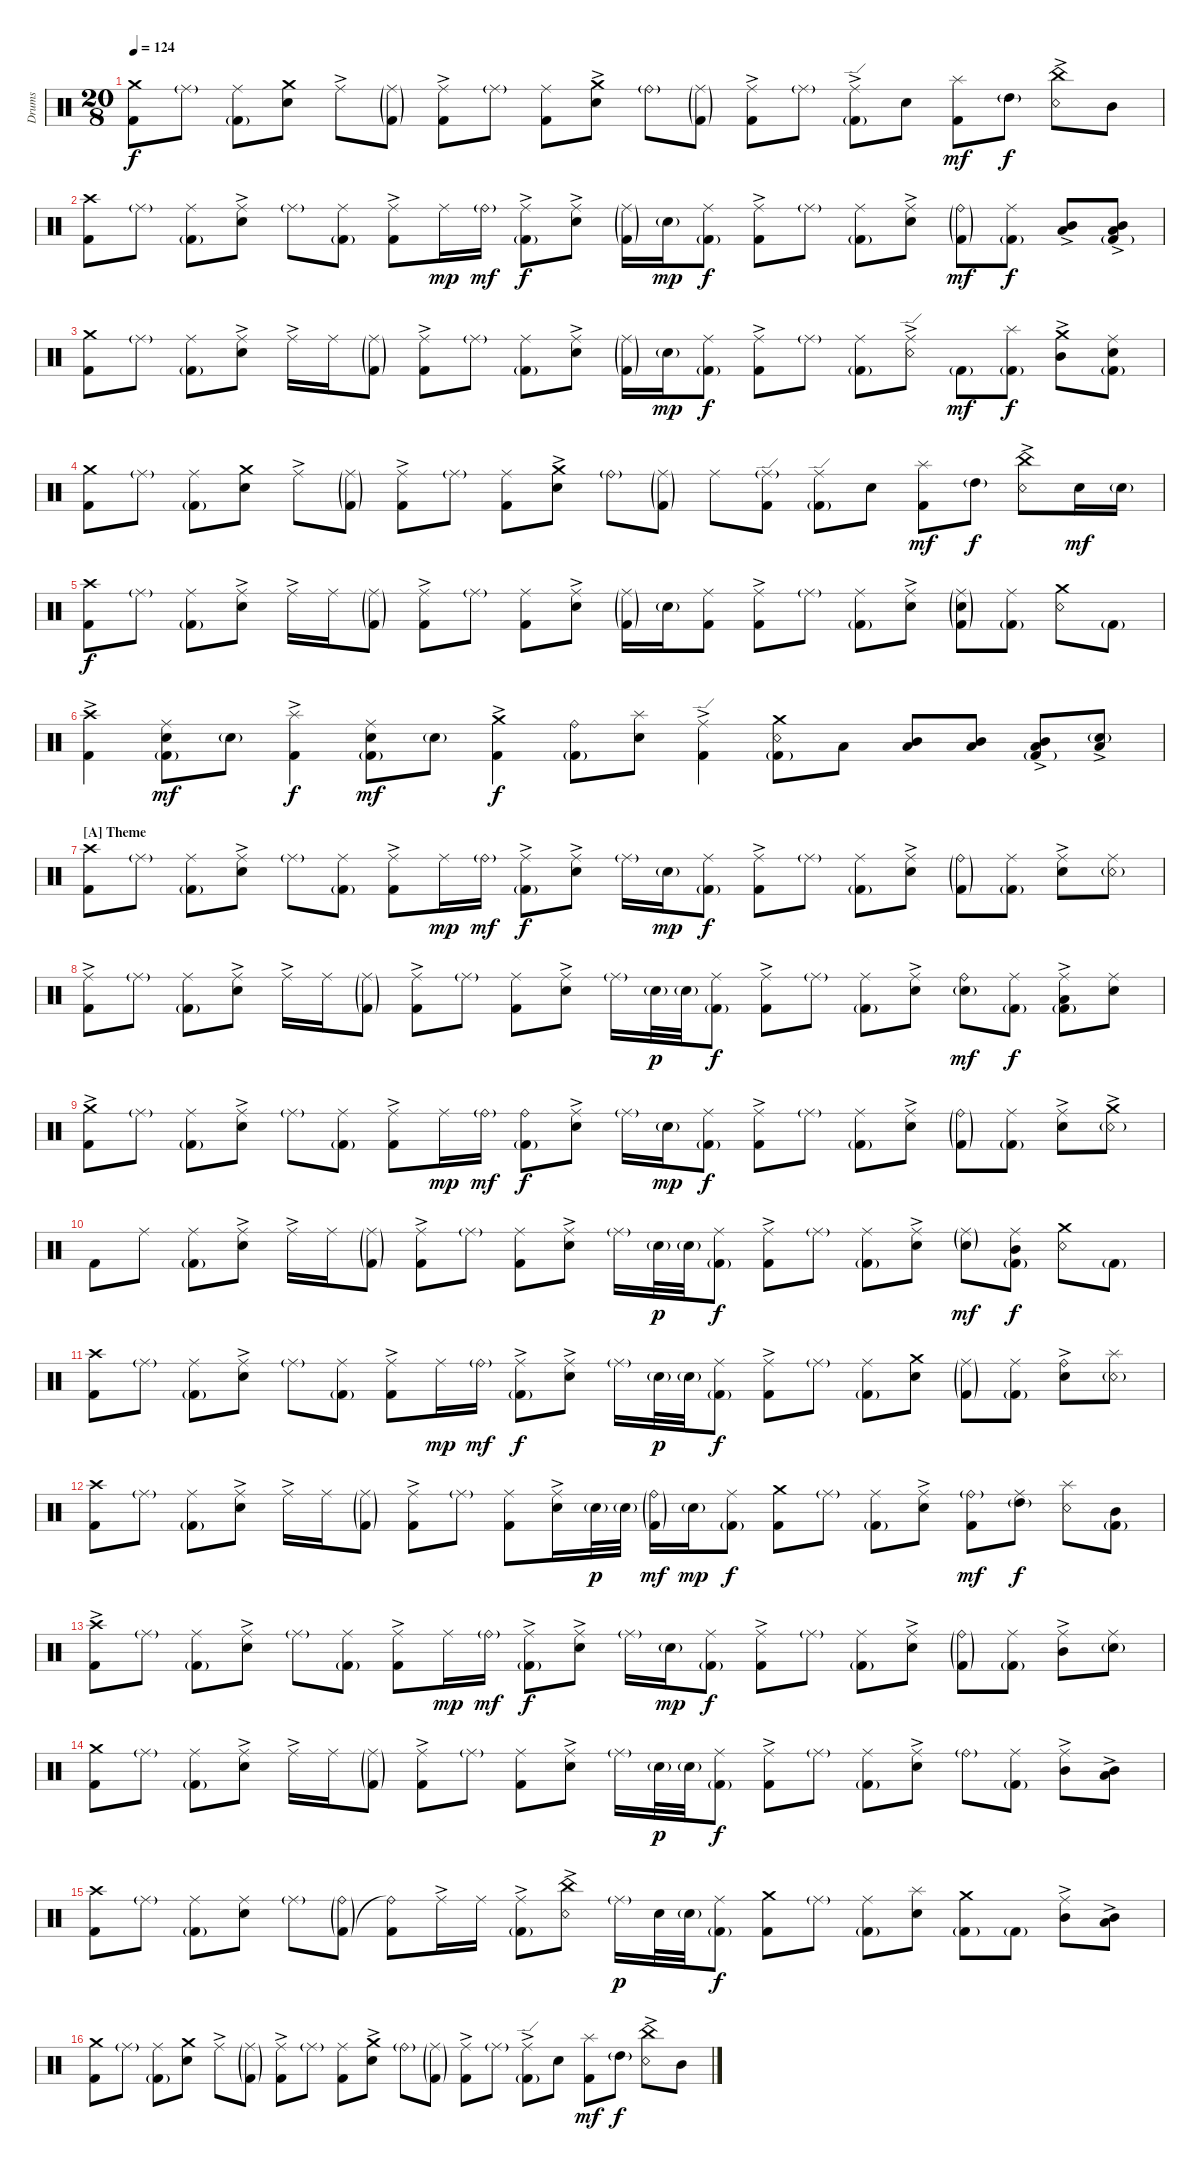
\bracketExtendMode groupsimilarinstruments
\otherSystemsTrackNameOrientation horizontal
\track ("Drumkit" "Drums") {instrument percussion}
\staff {score}
\articulation defaults
\ts (20 8)
\tempo 124
\clef neutral
\ks c
("Kick (hit) 2" "Crash medium (hit)").8{dy f beam Down} "Ride (middle)"{g}.8{beam Down} ("Ride (middle)" "Kick (hit) 2"{g}).8{beam Down} ("Snare (hit) 2" "Crash medium (hit)").8{beam Down} "Ride (middle)"{ac}.8{beam Down} ("Ride (middle)"{g} "Kick (hit) 2"{g}).8{beam Down} ("Ride (middle)"{ac} "Kick (hit) 2").8{beam Down} "Ride (middle)"{g}.8{beam Down} ("Ride (middle)" "Kick (hit) 2").8{beam Down} ("Snare (hit) 2" "Crash medium (hit)"{ac}).8{beam Down} "Ride (bell)"{g}.8{beam Down} ("Ride (middle)"{g} "Kick (hit) 2"{g}).8{beam Down} ("Ride (middle)"{ac} "Kick (hit) 2").8{beam Down} "Ride (middle)"{g}.8{beam Down} ("Ride (edge)"{ac} "Kick (hit) 2"{g}).8{beam Down} "Snare (hit) 2".8{beam Down} ("Kick (hit) 2" "Splash (hit)").8{dy mf beam Down} "High Tom (hit)"{g}.8{dy f beam Down} ("Snare (rim shot)" "China (hit)"{ac}).8{beam Down} "Mid Tom (hit)".8{beam Down} |
("Kick (hit) 2" "Crash high (hit)").8{beam Down} "Ride (middle)"{g}.8{beam Down} ("Ride (middle)" "Kick (hit) 2"{g}).8{beam Down} ("Ride (middle)"{ac} "Snare (hit) 2").8{beam Down} "Ride (middle)"{g}.8{beam Down} ("Ride (middle)" "Kick (hit) 2"{g}).8{beam Down} ("Ride (middle)"{ac} "Kick (hit) 2").8{beam Down} "Ride (middle)".16{dy mp beam Down} "Ride (bell)"{g}.16{dy mf beam Down} ("Ride (middle)"{ac} "Kick (hit) 2"{g}).8{dy f beam Down} ("Ride (middle)"{ac} "Snare (hit) 2").8{beam Down} ("Ride (middle)"{g} "Kick (hit) 2"{g}).16{beam Down} "Snare (hit) 2"{g}.16{dy mp beam Down} ("Ride (middle)" "Kick (hit) 2"{g}).8{dy f beam Down} ("Kick (hit) 2" "Ride (middle)"{ac}).8{beam Down} "Ride (middle)"{g}.8{beam Down} ("Ride (middle)" "Kick (hit) 2"{g}).8{beam Down} ("Ride (middle)"{ac} "Snare (hit) 2").8{beam Down} ("Ride (bell)"{g} "Kick (hit) 2"{g}).8{dy mf beam Down} ("Ride (middle)" "Kick (hit) 2"{g}).8{dy f beam Down} ("Mid Tom (hit)"{ac} "Low Tom (hit)"{ac}).8{beam Up} ("Mid Tom (hit)" "Low Tom (hit)"{ac} "Kick (hit) 2"{g}).8{beam Up} |
("Kick (hit) 2" "Crash medium (hit)").8{beam Down} "Ride (middle)"{g}.8{beam Down} ("Ride (middle)" "Kick (hit) 2"{g}).8{beam Down} ("Ride (middle)"{ac} "Snare (hit) 2").8{beam Down} "Ride (middle)"{ac}.16{beam Down} "Ride (middle)".16{beam Down} ("Ride (middle)"{g} "Kick (hit) 2"{g}).8{beam Down} ("Ride (middle)"{ac} "Kick (hit) 2").8{beam Down} "Ride (middle)"{g}.8{beam Down} ("Ride (middle)" "Kick (hit) 2"{g}).8{beam Down} ("Ride (middle)"{ac} "Snare (hit) 2").8{beam Down} ("Ride (middle)"{g} "Kick (hit) 2"{g}).16{beam Down} "Snare (hit) 2"{g}.16{dy mp beam Down} ("Ride (middle)" "Kick (hit) 2"{g}).8{dy f beam Down} ("Kick (hit) 2" "Ride (middle)"{ac}).8{beam Down} "Ride (middle)"{g}.8{beam Down} ("Ride (middle)" "Kick (hit) 2"{g}).8{beam Down} ("Ride (edge)"{ac} "Snare (rim shot)").8{beam Down} "Kick (hit) 2"{g}.8{dy mf beam Down} ("Kick (hit) 2"{g} "Splash (hit)").8{dy f beam Down} ("Mid Tom (hit)"{ac} "Crash medium (hit)").8{beam Down} ("Kick (hit) 2"{g} "Snare (hit) 2" "Ride (middle)").8{beam Down} |
("Kick (hit) 2" "Crash medium (hit)").8{beam Down} "Ride (middle)"{g}.8{beam Down} ("Ride (middle)" "Kick (hit) 2"{g}).8{beam Down} ("Snare (hit) 2" "Crash medium (hit)").8{beam Down} "Ride (middle)"{ac}.8{beam Down} ("Ride (middle)"{g} "Kick (hit) 2"{g}).8{beam Down} ("Ride (middle)"{ac} "Kick (hit) 2").8{beam Down} "Ride (middle)"{g}.8{beam Down} ("Ride (middle)" "Kick (hit) 2").8{beam Down} ("Snare (hit) 2" "Crash medium (hit)"{ac}).8{beam Down} "Ride (bell)"{g}.8{beam Down} ("Ride (middle)"{g} "Kick (hit) 2"{g}).8{beam Down} "Ride (middle)".8{beam Down} ("Ride (edge)"{g} "Kick (hit) 2").8{beam Down} ("Kick (hit) 2"{g} "Ride (edge)").8{beam Down} "Snare (hit) 2".8{beam Down} ("Kick (hit) 2" "Splash (hit)").8{dy mf beam Down} "High Tom (hit)"{g}.8{dy f beam Down} ("Snare (rim shot)" "China (hit)"{ac}).8{beam Down} "Snare (hit) 2".16{dy mf beam Down} "Snare (hit) 2"{g}.16{beam Down} |
("Kick (hit) 2" "Crash high (hit)").8{dy f beam Down} "Ride (middle)"{g}.8{beam Down} ("Ride (middle)" "Kick (hit) 2"{g}).8{beam Down} ("Ride (middle)"{ac} "Snare (hit) 2").8{beam Down} "Ride (middle)"{ac}.16{beam Down} "Ride (middle)".16{beam Down} ("Ride (middle)"{g} "Kick (hit) 2"{g}).8{beam Down} ("Ride (middle)"{ac} "Kick (hit) 2").8{beam Down} "Ride (middle)"{g}.8{beam Down} ("Ride (middle)" "Kick (hit) 2").8{beam Down} ("Ride (middle)"{ac} "Snare (hit) 2").8{beam Down} ("Ride (middle)"{g} "Kick (hit) 2"{g}).16{beam Down} "Snare (hit) 2"{g}.16{beam Down} ("Ride (middle)" "Kick (hit) 2").8{beam Down} ("Kick (hit) 2" "Ride (middle)"{ac}).8{beam Down} "Ride (middle)"{g}.8{beam Down} ("Ride (middle)" "Kick (hit) 2"{g}).8{beam Down} ("Ride (middle)"{ac} "Snare (hit) 2").8{beam Down} ("Ride (middle)"{g} "Snare (hit) 2"{g} "Kick (hit) 2"{g}).8{beam Down} ("Ride (middle)" "Kick (hit) 2"{g}).8{beam Down} ("Snare (rim shot)" "Crash medium (hit)").8{beam Down} "Kick (hit) 2"{g}.8{beam Down} |
("Kick (hit) 2" "Crash high (hit)"{ac}).4{beam Down} ("Kick (hit) 2"{g} "Ride (middle)" "Snare (hit) 2").8{dy mf beam Down} "Snare (hit) 2"{g}.8{beam Down} ("Kick (hit) 2" "Splash (hit)"{ac}).4{dy f beam Down} ("Kick (hit) 2"{g} "Ride (middle)" "Snare (hit) 2").8{dy mf beam Down} "Snare (hit) 2"{g}.8{beam Down} ("Kick (hit) 2" "Crash medium (hit)"{ac}).4{dy f beam Down} ("Kick (hit) 2"{g} "Ride (bell)").8{beam Down} ("Snare (hit) 2" "Splash (hit)").8{beam Down} ("Kick (hit) 2" "Ride (edge)"{ac}).4{beam Down} ("Snare (rim shot)" "Crash medium (hit)" "Kick (hit) 2"{g}).8{beam Down} "Low Tom (hit)".8{beam Up} ("Low Tom (hit)" "Mid Tom (hit)").8{beam Up} ("Low Tom (hit)" "Mid Tom (hit)").8{beam Up} ("Low Tom (hit)"{ac} "Mid Tom (hit)" "Kick (hit) 2"{g}).8{beam Up} ("Snare (hit) 2"{g} "Low Tom (hit)"{ac}).8{beam Up} |
\section ("A" "Theme")
("Kick (hit) 2" "Crash high (hit)").8{beam Down} "Ride (middle)"{g}.8{beam Down} ("Ride (middle)" "Kick (hit) 2"{g}).8{beam Down} ("Ride (middle)"{ac} "Snare (hit) 2").8{beam Down} "Ride (middle)"{g}.8{beam Down} ("Ride (middle)" "Kick (hit) 2"{g}).8{beam Down} ("Ride (middle)"{ac} "Kick (hit) 2").8{beam Down} "Ride (middle)".16{dy mp beam Down} "Ride (bell)"{g}.16{dy mf beam Down} ("Ride (middle)"{ac} "Kick (hit) 2"{g}).8{dy f beam Down} ("Ride (middle)"{ac} "Snare (hit) 2").8{beam Down} "Ride (middle)"{g}.16{beam Down} "Snare (hit) 2"{g}.16{dy mp beam Down} ("Ride (middle)" "Kick (hit) 2"{g}).8{dy f beam Down} ("Kick (hit) 2" "Ride (middle)"{ac}).8{beam Down} "Ride (middle)"{g}.8{beam Down} ("Ride (middle)" "Kick (hit) 2"{g}).8{beam Down} ("Ride (middle)"{ac} "Snare (hit) 2").8{beam Down} ("Ride (bell)"{g} "Kick (hit) 2"{g}).8{beam Down} ("Ride (middle)" "Kick (hit) 2"{g}).8{beam Down} ("Ride (middle)"{ac} "Snare (hit) 2").8{beam Down} ("Ride (middle)" "Snare (rim shot)"{g}).8{beam Down} |
("Kick (hit) 2" "Ride (middle)"{ac}).8{beam Down} "Ride (middle)"{g}.8{beam Down} ("Ride (middle)" "Kick (hit) 2"{g}).8{beam Down} ("Ride (middle)"{ac} "Snare (hit) 2").8{beam Down} "Ride (middle)"{ac}.16{beam Down} "Ride (middle)".16{beam Down} ("Ride (middle)"{g} "Kick (hit) 2"{g}).8{beam Down} ("Ride (middle)"{ac} "Kick (hit) 2").8{beam Down} "Ride (middle)"{g}.8{beam Down} ("Ride (middle)" "Kick (hit) 2").8{beam Down} ("Ride (middle)"{ac} "Snare (hit) 2").8{beam Down} "Ride (middle)"{g}.16{beam Down} "Snare (hit) 2"{g}.32{dy p beam Down} "Snare (hit) 2"{g}.32{beam Down} ("Ride (middle)" "Kick (hit) 2"{g}).8{dy f beam Down} ("Kick (hit) 2" "Ride (middle)"{ac}).8{beam Down} "Ride (middle)"{g}.8{beam Down} ("Ride (middle)" "Kick (hit) 2"{g}).8{beam Down} ("Ride (middle)"{ac} "Snare (hit) 2").8{beam Down} ("Ride (bell)" "Snare (hit) 2"{g}).8{dy mf beam Down} ("Ride (middle)" "Kick (hit) 2"{g}).8{dy f beam Down} ("Low Tom (hit)"{ac} "Kick (hit) 2"{g} "Ride (middle)").8{beam Down} ("Snare (hit) 2" "Ride (middle)").8{beam Down} |
("Kick (hit) 2" "Crash medium (hit)"{ac}).8{beam Down} "Ride (middle)"{g}.8{beam Down} ("Ride (middle)" "Kick (hit) 2"{g}).8{beam Down} ("Ride (middle)"{ac} "Snare (hit) 2").8{beam Down} "Ride (middle)"{g}.8{beam Down} ("Ride (middle)" "Kick (hit) 2"{g}).8{beam Down} ("Ride (middle)"{ac} "Kick (hit) 2").8{beam Down} "Ride (middle)".16{dy mp beam Down} "Ride (bell)"{g}.16{dy mf beam Down} ("Ride (bell)" "Kick (hit) 2"{g}).8{dy f beam Down} ("Ride (middle)"{ac} "Snare (hit) 2").8{beam Down} "Ride (middle)"{g}.16{beam Down} "Snare (hit) 2"{g}.16{dy mp beam Down} ("Ride (middle)" "Kick (hit) 2"{g}).8{dy f beam Down} ("Kick (hit) 2" "Ride (middle)"{ac}).8{beam Down} "Ride (middle)"{g}.8{beam Down} ("Ride (middle)" "Kick (hit) 2"{g}).8{beam Down} ("Ride (middle)"{ac} "Snare (hit) 2").8{beam Down} ("Ride (bell)"{g} "Kick (hit) 2"{g}).8{beam Down} ("Ride (middle)" "Kick (hit) 2"{g}).8{beam Down} ("Ride (middle)"{ac} "Snare (hit) 2").8{beam Down} ("Snare (rim shot)"{g} "Crash medium (hit)"{ac}).8{beam Down} |
"Kick (hit) 2".8{beam Down} "Ride (middle)".8{beam Down} ("Ride (middle)" "Kick (hit) 2"{g}).8{beam Down} ("Ride (middle)"{ac} "Snare (hit) 2").8{beam Down} "Ride (middle)"{ac}.16{beam Down} "Ride (middle)".16{beam Down} ("Ride (middle)"{g} "Kick (hit) 2"{g}).8{beam Down} ("Ride (middle)"{ac} "Kick (hit) 2").8{beam Down} "Ride (middle)"{g}.8{beam Down} ("Ride (middle)" "Kick (hit) 2").8{beam Down} ("Ride (middle)"{ac} "Snare (hit) 2").8{beam Down} "Ride (middle)"{g}.16{beam Down} "Snare (hit) 2"{g}.32{dy p beam Down} "Snare (hit) 2"{g}.32{beam Down} ("Ride (middle)" "Kick (hit) 2"{g}).8{dy f beam Down} ("Kick (hit) 2" "Ride (middle)"{ac}).8{beam Down} "Ride (middle)"{g}.8{beam Down} ("Ride (middle)" "Kick (hit) 2"{g}).8{beam Down} ("Ride (middle)"{ac} "Snare (hit) 2").8{beam Down} ("Ride (middle)"{g} "Snare (hit) 2"{g}).8{dy mf beam Down} ("Ride (middle)" "Kick (hit) 2"{g} "Mid Tom (hit)").8{dy f beam Down} ("Snare (rim shot)" "Crash medium (hit)").8{beam Down} "Kick (hit) 2"{g}.8{beam Down} |
("Kick (hit) 2" "Crash high (hit)").8{beam Down} "Ride (middle)"{g}.8{beam Down} ("Ride (middle)" "Kick (hit) 2"{g}).8{beam Down} ("Ride (middle)"{ac} "Snare (hit) 2").8{beam Down} "Ride (middle)"{g}.8{beam Down} ("Ride (middle)" "Kick (hit) 2"{g}).8{beam Down} ("Ride (middle)"{ac} "Kick (hit) 2").8{beam Down} "Ride (middle)".16{dy mp beam Down} "Ride (bell)"{g}.16{dy mf beam Down} ("Ride (middle)"{ac} "Kick (hit) 2"{g}).8{dy f beam Down} ("Ride (middle)"{ac} "Snare (hit) 2").8{beam Down} "Ride (middle)"{g}.16{beam Down} "Snare (hit) 2"{g}.32{dy p beam Down} "Snare (hit) 2"{g}.32{beam Down} ("Ride (middle)" "Kick (hit) 2"{g}).8{dy f beam Down} ("Kick (hit) 2" "Ride (middle)"{ac}).8{beam Down} "Ride (middle)"{g}.8{beam Down} ("Ride (middle)" "Kick (hit) 2"{g}).8{beam Down} ("Snare (hit) 2" "Crash medium (hit)").8{beam Down} ("Ride (middle)"{g} "Kick (hit) 2"{g}).8{beam Down} ("Ride (middle)" "Kick (hit) 2"{g}).8{beam Down} ("Ride (bell)"{ac} "Snare (hit) 2").8{beam Down} ("Snare (rim shot)"{g} "Splash (hit)").8{beam Down} |
("Kick (hit) 2" "Crash high (hit)").8{beam Down} "Ride (middle)"{g}.8{beam Down} ("Ride (middle)" "Kick (hit) 2"{g}).8{beam Down} ("Ride (middle)"{ac} "Snare (hit) 2").8{beam Down} "Ride (middle)"{ac}.16{beam Down} "Ride (middle)".16{beam Down} ("Ride (middle)"{g} "Kick (hit) 2"{g}).8{beam Down} ("Ride (middle)"{ac} "Kick (hit) 2").8{beam Down} "Ride (middle)"{g}.8{beam Down} ("Ride (middle)" "Kick (hit) 2").8{beam Down} ("Ride (middle)"{ac} "Snare (hit) 2").16{beam Down} "Snare (hit) 2"{g}.32{dy p beam Down} "Snare (hit) 2"{g}.32{beam Down} ("Ride (bell)"{g} "Kick (hit) 2"{g}).16{dy mf beam Down} "Snare (hit) 2"{g}.16{dy mp beam Down} ("Ride (middle)" "Kick (hit) 2"{g}).8{dy f beam Down} ("Crash medium (hit)" "Kick (hit) 2").8{beam Down} "Ride (middle)"{g}.8{beam Down} ("Ride (middle)" "Kick (hit) 2"{g}).8{beam Down} ("Ride (middle)"{ac} "Snare (hit) 2").8{beam Down} ("Ride (bell)"{g} "Kick (hit) 2").8{dy mf beam Down} ("High Tom (hit)"{g} "Ride (middle)").8{dy f beam Down} ("Snare (rim shot)" "Splash (hit)").8{beam Down} ("Kick (hit) 2"{g} "Mid Tom (hit)").8{beam Down} |
("Kick (hit) 2" "Crash high (hit)"{ac}).8{beam Down} "Ride (middle)"{g}.8{beam Down} ("Ride (middle)" "Kick (hit) 2"{g}).8{beam Down} ("Ride (middle)"{ac} "Snare (hit) 2").8{beam Down} "Ride (middle)"{g}.8{beam Down} ("Ride (middle)" "Kick (hit) 2"{g}).8{beam Down} ("Ride (middle)"{ac} "Kick (hit) 2").8{beam Down} "Ride (middle)".16{dy mp beam Down} "Ride (bell)"{g}.16{dy mf beam Down} ("Ride (middle)"{ac} "Kick (hit) 2"{g}).8{dy f beam Down} ("Ride (middle)"{ac} "Snare (hit) 2").8{beam Down} "Ride (middle)"{g}.16{beam Down} "Snare (hit) 2"{g}.16{dy mp beam Down} ("Ride (middle)" "Kick (hit) 2"{g}).8{dy f beam Down} ("Kick (hit) 2" "Ride (middle)"{ac}).8{beam Down} "Ride (middle)"{g}.8{beam Down} ("Ride (middle)" "Kick (hit) 2"{g}).8{beam Down} ("Ride (middle)"{ac} "Snare (hit) 2").8{beam Down} ("Ride (bell)"{g} "Kick (hit) 2"{g}).8{beam Down} ("Ride (middle)" "Kick (hit) 2"{g}).8{beam Down} ("Ride (middle)"{ac} "Mid Tom (hit)").8{beam Down} ("Ride (middle)" "Snare (hit) 2"{g}).8{beam Down} |
("Kick (hit) 2" "Crash medium (hit)").8{beam Down} "Ride (middle)"{g}.8{beam Down} ("Ride (middle)" "Kick (hit) 2"{g}).8{beam Down} ("Ride (middle)"{ac} "Snare (hit) 2").8{beam Down} "Ride (middle)"{ac}.16{beam Down} "Ride (middle)".16{beam Down} ("Ride (middle)"{g} "Kick (hit) 2"{g}).8{beam Down} ("Ride (middle)"{ac} "Kick (hit) 2").8{beam Down} "Ride (middle)"{g}.8{beam Down} ("Ride (middle)" "Kick (hit) 2").8{beam Down} ("Ride (middle)"{ac} "Snare (hit) 2").8{beam Down} "Ride (middle)"{g}.16{beam Down} "Snare (hit) 2"{g}.32{dy p beam Down} "Snare (hit) 2"{g}.32{beam Down} ("Ride (middle)" "Kick (hit) 2"{g}).8{dy f beam Down} ("Kick (hit) 2" "Ride (middle)"{ac}).8{beam Down} "Ride (middle)"{g}.8{beam Down} ("Ride (middle)" "Kick (hit) 2"{g}).8{beam Down} ("Ride (middle)"{ac} "Snare (hit) 2").8{beam Down} "Ride (bell)"{g}.8{beam Down} ("Ride (middle)" "Kick (hit) 2"{g}).8{beam Down} ("Ride (middle)"{ac} "Mid Tom (hit)").8{beam Down} ("Mid Tom (hit)" "Low Tom (hit)"{ac}).8{beam Down} |
("Kick (hit) 2" "Crash high (hit)").8{beam Down} "Ride (middle)"{g}.8{beam Down} ("Ride (middle)" "Kick (hit) 2"{g}).8{beam Down} ("Snare (hit) 2" "Ride (middle)").8{beam Down} "Ride (middle)"{g}.8{beam Down} ("Ride (bell)"{g} "Kick (hit) 2"{g}).8{beam Down} ("Kick (hit) 2" "Ride (bell)"{t}).8{beam Down} "Ride (middle)"{ac}.16{beam Down} "Ride (middle)".16{beam Down} ("Ride (middle)"{ac} "Kick (hit) 2"{g}).8{beam Down} ("Snare (rim shot)" "China (hit)"{ac}).8{beam Down} "Ride (middle)"{g}.16{dy p beam Down} "Snare (hit) 2".32{beam Down} "Snare (hit) 2"{g}.32{beam Down} ("Ride (middle)" "Kick (hit) 2"{g}).8{dy f beam Down} ("Kick (hit) 2" "Crash medium (hit)").8{beam Down} "Ride (middle)"{g}.8{beam Down} ("Ride (middle)" "Kick (hit) 2"{g}).8{beam Down} ("Snare (hit) 2" "Splash (hit)").8{beam Down} ("Kick (hit) 2"{g} "Crash medium (hit)").8{beam Down} "Kick (hit) 2"{g}.8{beam Down} ("Ride (middle)"{ac} "Mid Tom (hit)").8{beam Down} ("Mid Tom (hit)" "Low Tom (hit)"{ac}).8{beam Down} |
("Kick (hit) 2" "Crash medium (hit)").8{beam Down} "Ride (middle)"{g}.8{beam Down} ("Ride (middle)" "Kick (hit) 2"{g}).8{beam Down} ("Snare (hit) 2" "Crash medium (hit)").8{beam Down} "Ride (middle)"{ac}.8{beam Down} ("Ride (middle)"{g} "Kick (hit) 2"{g}).8{beam Down} ("Ride (middle)"{ac} "Kick (hit) 2").8{beam Down} "Ride (middle)"{g}.8{beam Down} ("Ride (middle)" "Kick (hit) 2").8{beam Down} ("Snare (hit) 2" "Crash medium (hit)"{ac}).8{beam Down} "Ride (bell)"{g}.8{beam Down} ("Ride (middle)"{g} "Kick (hit) 2"{g}).8{beam Down} ("Ride (middle)"{ac} "Kick (hit) 2").8{beam Down} "Ride (middle)"{g}.8{beam Down} ("Ride (edge)"{ac} "Kick (hit) 2"{g}).8{beam Down} "Snare (hit) 2".8{beam Down} ("Kick (hit) 2" "Splash (hit)").8{dy mf beam Down} "High Tom (hit)"{g}.8{dy f beam Down} ("Snare (rim shot)" "China (hit)"{ac}).8{beam Down} "Mid Tom (hit)".8{beam Down}
